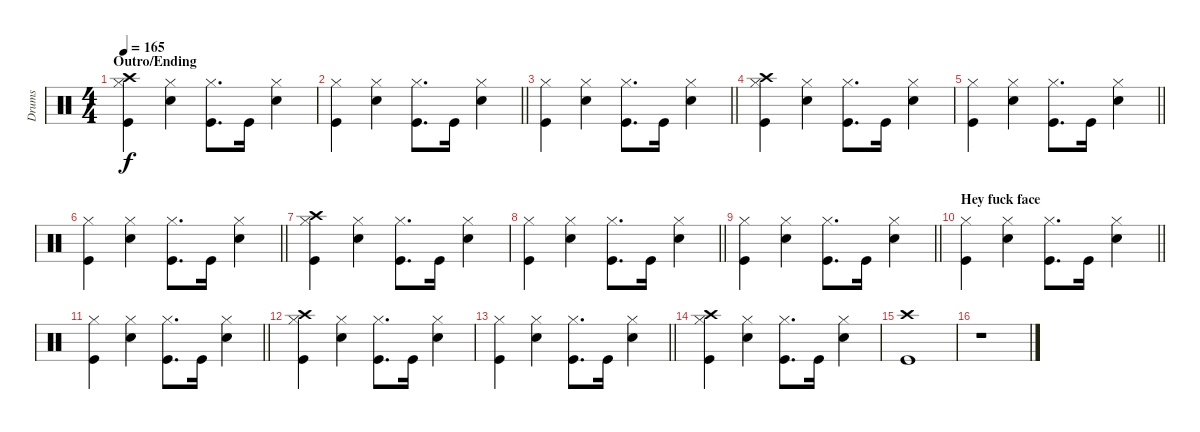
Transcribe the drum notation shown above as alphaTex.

\track ("Drums" "Drums") {instrument percussion}
\staff {score}
\articulation defaults
\ts (4 4)
\section ("" "Outro/Ending")
\tempo 165
\clef neutral
\ks c
("Kick (hit)" "Crash high (hit)" "Hi-Hat (closed)").4{dy f} ("Snare (hit) 2" "Hi-Hat (closed)").4 ("Kick (hit)" "Hi-Hat (closed)").8{d} "Kick (hit)".16 ("Snare (hit) 2" "Hi-Hat (closed)").4 |
\barLineRight lightlight
("Kick (hit)" "Hi-Hat (closed)").4 ("Snare (hit) 2" "Hi-Hat (closed)").4 ("Kick (hit)" "Hi-Hat (closed)").8{d} "Kick (hit)".16 ("Snare (hit) 2" "Hi-Hat (closed)").4 |
\barLineRight lightlight
("Kick (hit)" "Hi-Hat (closed)").4 ("Snare (hit) 2" "Hi-Hat (closed)").4 ("Kick (hit)" "Hi-Hat (closed)").8{d} "Kick (hit)".16 ("Snare (hit) 2" "Hi-Hat (closed)").4 |
("Kick (hit)" "Crash high (hit)" "Hi-Hat (closed)").4 ("Snare (hit) 2" "Hi-Hat (closed)").4 ("Kick (hit)" "Hi-Hat (closed)").8{d} "Kick (hit)".16 ("Snare (hit) 2" "Hi-Hat (closed)").4 |
\barLineRight lightlight
("Kick (hit)" "Hi-Hat (closed)").4 ("Snare (hit) 2" "Hi-Hat (closed)").4 ("Kick (hit)" "Hi-Hat (closed)").8{d} "Kick (hit)".16 ("Snare (hit) 2" "Hi-Hat (closed)").4 |
\barLineRight lightlight
("Kick (hit)" "Hi-Hat (closed)").4 ("Snare (hit) 2" "Hi-Hat (closed)").4 ("Kick (hit)" "Hi-Hat (closed)").8{d} "Kick (hit)".16 ("Snare (hit) 2" "Hi-Hat (closed)").4 |
("Kick (hit)" "Crash high (hit)" "Hi-Hat (closed)").4 ("Snare (hit) 2" "Hi-Hat (closed)").4 ("Kick (hit)" "Hi-Hat (closed)").8{d} "Kick (hit)".16 ("Snare (hit) 2" "Hi-Hat (closed)").4 |
\barLineRight lightlight
("Kick (hit)" "Hi-Hat (closed)").4 ("Snare (hit) 2" "Hi-Hat (closed)").4 ("Kick (hit)" "Hi-Hat (closed)").8{d} "Kick (hit)".16 ("Snare (hit) 2" "Hi-Hat (closed)").4 |
\barLineRight lightlight
("Kick (hit)" "Hi-Hat (closed)").4 ("Snare (hit) 2" "Hi-Hat (closed)").4 ("Kick (hit)" "Hi-Hat (closed)").8{d} "Kick (hit)".16 ("Snare (hit) 2" "Hi-Hat (closed)").4 |
\section ("" "Hey fuck face")
\barLineRight lightlight
("Kick (hit)" "Hi-Hat (closed)").4 ("Snare (hit) 2" "Hi-Hat (closed)").4 ("Kick (hit)" "Hi-Hat (closed)").8{d} "Kick (hit)".16 ("Snare (hit) 2" "Hi-Hat (closed)").4 |
\barLineRight lightlight
("Kick (hit)" "Hi-Hat (closed)").4 ("Snare (hit) 2" "Hi-Hat (closed)").4 ("Kick (hit)" "Hi-Hat (closed)").8{d} "Kick (hit)".16 ("Snare (hit) 2" "Hi-Hat (closed)").4 |
("Kick (hit)" "Crash high (hit)" "Hi-Hat (closed)").4 ("Snare (hit) 2" "Hi-Hat (closed)").4 ("Kick (hit)" "Hi-Hat (closed)").8{d} "Kick (hit)".16 ("Snare (hit) 2" "Hi-Hat (closed)").4 |
\barLineRight lightlight
("Kick (hit)" "Hi-Hat (closed)").4 ("Snare (hit) 2" "Hi-Hat (closed)").4 ("Kick (hit)" "Hi-Hat (closed)").8{d} "Kick (hit)".16 ("Snare (hit) 2" "Hi-Hat (closed)").4 |
("Kick (hit)" "Crash high (hit)" "Hi-Hat (closed)").4 ("Snare (hit) 2" "Hi-Hat (closed)").4 ("Kick (hit)" "Hi-Hat (closed)").8{d} "Kick (hit)".16 ("Snare (hit) 2" "Hi-Hat (closed)").4 |
("Kick (hit)" "Crash high (hit)").1 |
r.1
